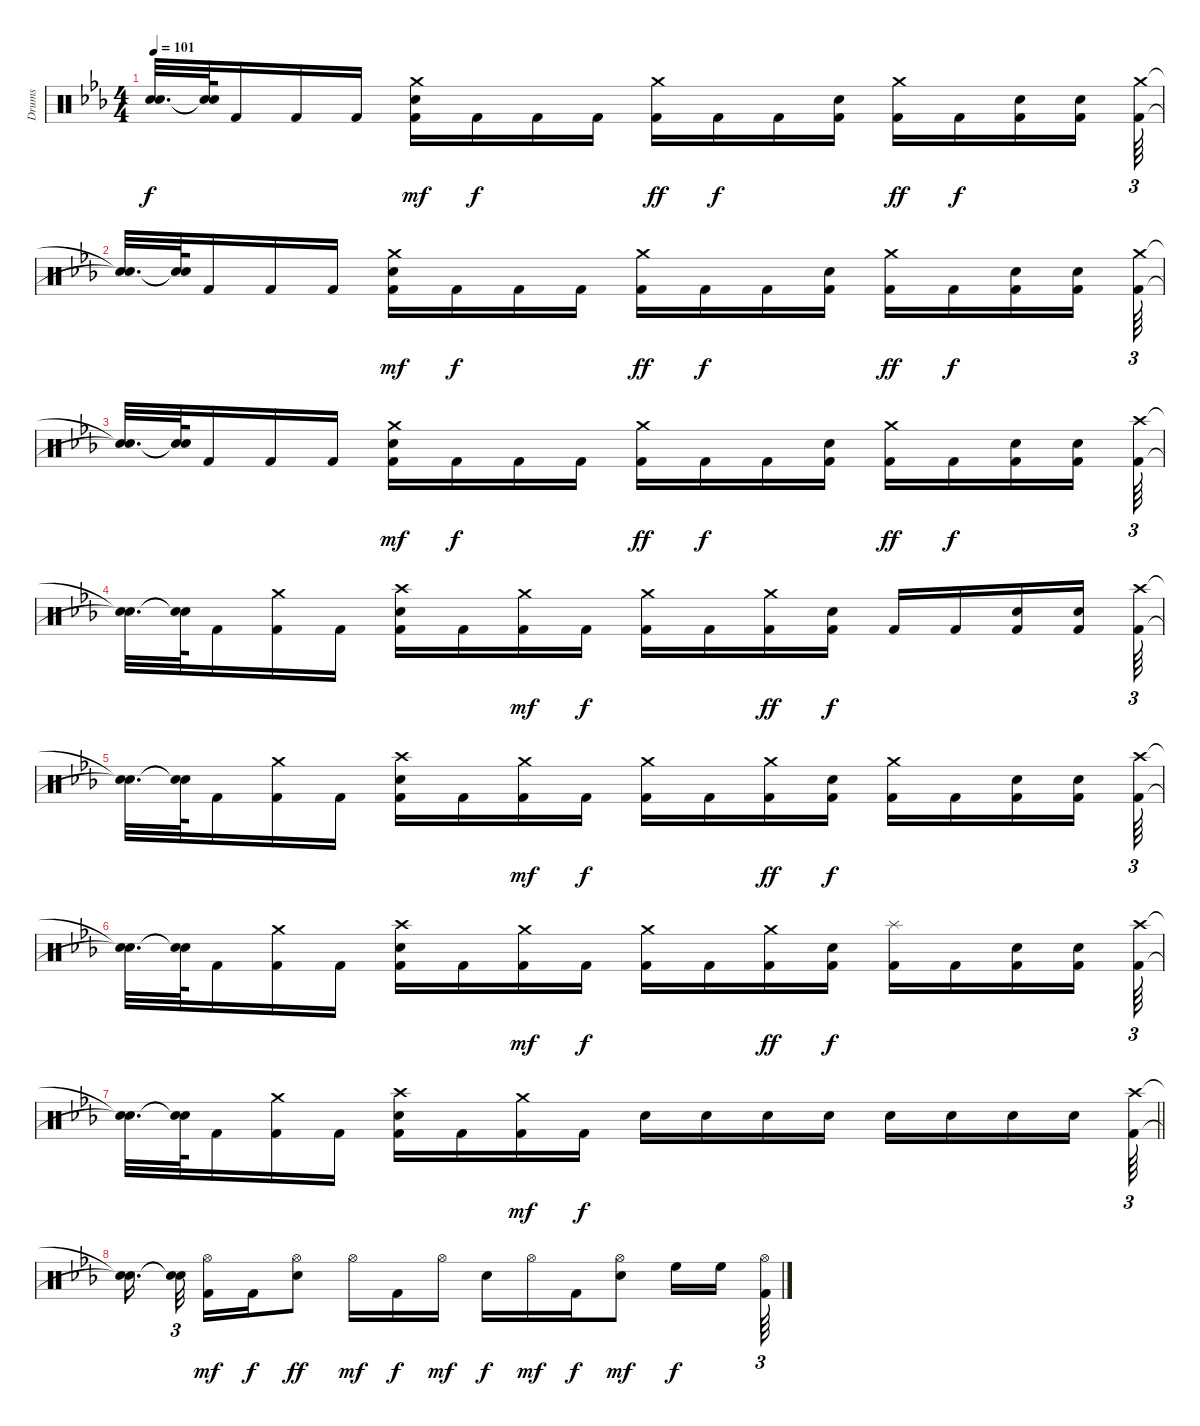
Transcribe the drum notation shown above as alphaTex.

\track ("Drums" "Drums") {instrument percussion}
\staff {score}
\articulation defaults
\ts (4 4)
\tempo 101
\clef neutral
\ks cminor
("Snare (hit)"{t} "Snare (hit)"{t}).32{d dy f} ("Snare (hit)"{t} "Snare (hit)"{t}).64 "Kick (hit) 2".16 "Kick (hit) 2".16 "Kick (hit) 2".16 ("Kick (hit) 2" "Electric Snare (hit)" "Crash medium (hit)").16{dy mf} "Kick (hit) 2".16{dy f} "Kick (hit) 2".16 "Kick (hit) 2".16 ("Kick (hit) 2" "Crash medium (hit)").16{dy ff} "Kick (hit) 2".16{dy f} "Kick (hit) 2".16 ("Kick (hit) 2" "Electric Snare (hit)").16 ("Kick (hit) 2" "Crash medium (hit)").16{dy ff} "Kick (hit) 2".16{dy f} ("Kick (hit) 2" "Electric Snare (hit)").16 ("Kick (hit) 2" "Electric Snare (hit)").16 ("Kick (hit) 2" "Crash medium (hit)").64{tu (3 2)} |
("Snare (hit)"{t} "Snare (hit)"{t}).32{d} ("Snare (hit)"{t} "Snare (hit)"{t}).64 "Kick (hit) 2".16 "Kick (hit) 2".16 "Kick (hit) 2".16 ("Kick (hit) 2" "Electric Snare (hit)" "Crash medium (hit)").16{dy mf} "Kick (hit) 2".16{dy f} "Kick (hit) 2".16 "Kick (hit) 2".16 ("Kick (hit) 2" "Crash medium (hit)").16{dy ff} "Kick (hit) 2".16{dy f} "Kick (hit) 2".16 ("Kick (hit) 2" "Electric Snare (hit)").16 ("Kick (hit) 2" "Crash medium (hit)").16{dy ff} "Kick (hit) 2".16{dy f} ("Kick (hit) 2" "Electric Snare (hit)").16 ("Kick (hit) 2" "Electric Snare (hit)").16 ("Kick (hit) 2" "Crash medium (hit)").64{tu (3 2)} |
("Snare (hit)"{t} "Snare (hit)"{t}).32{d} ("Snare (hit)"{t} "Snare (hit)"{t}).64 "Kick (hit) 2".16 "Kick (hit) 2".16 "Kick (hit) 2".16 ("Kick (hit) 2" "Electric Snare (hit)" "Crash medium (hit)").16{dy mf} "Kick (hit) 2".16{dy f} "Kick (hit) 2".16 "Kick (hit) 2".16 ("Kick (hit) 2" "Crash medium (hit)").16{dy ff} "Kick (hit) 2".16{dy f} "Kick (hit) 2".16 ("Kick (hit) 2" "Electric Snare (hit)").16 ("Kick (hit) 2" "Crash medium (hit)").16{dy ff} "Kick (hit) 2".16{dy f} ("Electric Snare (hit)" "Kick (hit) 2").16 ("Electric Snare (hit)" "Kick (hit) 2").16 ("Kick (hit) 2" "Crash high (hit)").64{tu (3 2)} |
("Snare (hit)"{t} "Snare (hit)"{t}).32{d} ("Snare (hit)"{t} "Snare (hit)"{t}).64 "Kick (hit) 2".16 ("Crash medium (hit)" "Kick (hit) 2").16 "Kick (hit) 2".16 ("Kick (hit) 2" "Electric Snare (hit)" "Crash high (hit)").16 "Kick (hit) 2".16 ("Crash medium (hit)" "Kick (hit) 2").16{dy mf} "Kick (hit) 2".16{dy f} ("Kick (hit) 2" "Crash medium (hit)").16 "Kick (hit) 2".16 ("Crash medium (hit)" "Kick (hit) 2").16{dy ff} ("Kick (hit) 2" "Electric Snare (hit)").16{dy f} "Kick (hit) 2".16 "Kick (hit) 2".16 ("Kick (hit) 2" "Electric Snare (hit)").16 ("Kick (hit) 2" "Electric Snare (hit)").16 ("Crash high (hit)" "Kick (hit) 2").64{tu (3 2)} |
("Snare (hit)"{t} "Snare (hit)"{t}).32{d} ("Snare (hit)"{t} "Snare (hit)"{t}).64 "Kick (hit) 2".16 ("Crash medium (hit)" "Kick (hit) 2").16 "Kick (hit) 2".16 ("Kick (hit) 2" "Electric Snare (hit)" "Crash high (hit)").16 "Kick (hit) 2".16 ("Crash medium (hit)" "Kick (hit) 2").16{dy mf} "Kick (hit) 2".16{dy f} ("Kick (hit) 2" "Crash medium (hit)").16 "Kick (hit) 2".16 ("Crash medium (hit)" "Kick (hit) 2").16{dy ff} ("Kick (hit) 2" "Electric Snare (hit)").16{dy f} ("Kick (hit) 2" "Crash medium (hit)").16 "Kick (hit) 2".16 ("Kick (hit) 2" "Electric Snare (hit)").16 ("Kick (hit) 2" "Electric Snare (hit)").16 ("Crash high (hit)" "Kick (hit) 2").64{tu (3 2)} |
("Snare (hit)"{t} "Snare (hit)"{t}).32{d} ("Snare (hit)"{t} "Snare (hit)"{t}).64 "Kick (hit) 2".16 ("Crash medium (hit)" "Kick (hit) 2").16 "Kick (hit) 2".16 ("Kick (hit) 2" "Electric Snare (hit)" "Crash high (hit)").16 "Kick (hit) 2".16 ("Crash medium (hit)" "Kick (hit) 2").16{dy mf} "Kick (hit) 2".16{dy f} ("Kick (hit) 2" "Crash medium (hit)").16 "Kick (hit) 2".16 ("Crash medium (hit)" "Kick (hit) 2").16{dy ff} ("Kick (hit) 2" "Electric Snare (hit)").16{dy f} ("Kick (hit) 2" "Splash (hit)").16 "Kick (hit) 2".16 ("Kick (hit) 2" "Electric Snare (hit)").16 ("Kick (hit) 2" "Electric Snare (hit)").16 ("Crash high (hit)" "Kick (hit) 2").64{tu (3 2)} |
\barLineRight lightlight
("Snare (hit)"{t} "Snare (hit)"{t}).32{d} ("Snare (hit)"{t} "Snare (hit)"{t}).64 "Kick (hit) 2".16 ("Crash medium (hit)" "Kick (hit) 2").16 "Kick (hit) 2".16 ("Kick (hit) 2" "Electric Snare (hit)" "Crash high (hit)").16 "Kick (hit) 2".16 ("Crash medium (hit)" "Kick (hit) 2").16{dy mf} "Kick (hit) 2".16{dy f} "Electric Snare (hit)".16 "Electric Snare (hit)".16 "Electric Snare (hit)".16 "Electric Snare (hit)".16 "Electric Snare (hit)".16 "Electric Snare (hit)".16 "Electric Snare (hit)".16 "Electric Snare (hit)".16 ("Kick (hit) 2" "Crash high (hit)").64{tu (3 2)} |
("Snare (hit)"{t} "Snare (hit)"{t}).16{d beam splitsecondary} ("Snare (hit)"{t} "Snare (hit)"{t}).32{tu (3 2) beam splitsecondary} ("Kick (hit) 2" "Hi-Hat (open)").16{dy mf} "Kick (hit) 2".16{dy f} ("Electric Snare (hit)" "Hi-Hat (open)").8{dy ff} "Hi-Hat (open)".16{dy mf} "Kick (hit) 2".16{dy f} "Hi-Hat (open)".16{dy mf} "Electric Snare (hit)".16{dy f} "Hi-Hat (open)".16{dy mf} "Kick (hit) 2".16{dy f} ("Electric Snare (hit)" "Hi-Hat (open)").8{dy mf} "High Floor Tom (hit)".16{dy f} "High Floor Tom (hit)".16{beam splitsecondary} ("Kick (hit) 2" "Hi-Hat (open)").64{tu (3 2)}
